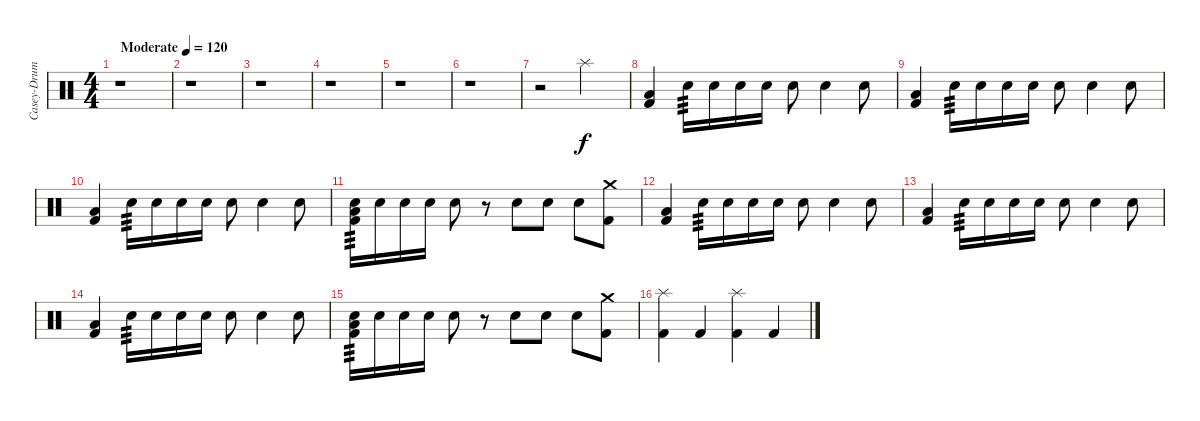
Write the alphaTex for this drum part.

\track ("Casey-Drums" "Casey-Drum") {instrument percussion}
\staff {score}
\articulation defaults
\ts (4 4)
\tempo (120 "Moderate")
\clef neutral
\ks c
r.1{dy f} |
r.1 |
r.1 |
r.1 |
r.1 |
r.1 |
r.2 "Splash (hit)".2 |
("Low Floor Tom (hit)" "Kick (hit) 2").4 "Electric Snare (hit)".16{tp 3} "Electric Snare (hit)".16 "Electric Snare (hit)".16 "Electric Snare (hit)".16 "Electric Snare (hit)".8 "Electric Snare (hit)".4 "Electric Snare (hit)".8 |
("Low Floor Tom (hit)" "Kick (hit) 2").4 "Electric Snare (hit)".16{tp 3} "Electric Snare (hit)".16 "Electric Snare (hit)".16 "Electric Snare (hit)".16 "Electric Snare (hit)".8 "Electric Snare (hit)".4 "Electric Snare (hit)".8 |
("Low Floor Tom (hit)" "Kick (hit) 2").4 "Electric Snare (hit)".16{tp 3} "Electric Snare (hit)".16 "Electric Snare (hit)".16 "Electric Snare (hit)".16 "Electric Snare (hit)".8 "Electric Snare (hit)".4 "Electric Snare (hit)".8 |
("Electric Snare (hit)" "Low Floor Tom (hit)" "Kick (hit) 2").16{tp 3} "Electric Snare (hit)".16 "Electric Snare (hit)".16 "Electric Snare (hit)".16 "Electric Snare (hit)".8 r.8 "Electric Snare (hit)".8 "Electric Snare (hit)".8 "Electric Snare (hit)".8 ("Crash medium (hit)" "Kick (hit) 2").8 |
("Low Floor Tom (hit)" "Kick (hit) 2").4 "Electric Snare (hit)".16{tp 3} "Electric Snare (hit)".16 "Electric Snare (hit)".16 "Electric Snare (hit)".16 "Electric Snare (hit)".8 "Electric Snare (hit)".4 "Electric Snare (hit)".8 |
("Low Floor Tom (hit)" "Kick (hit) 2").4 "Electric Snare (hit)".16{tp 3} "Electric Snare (hit)".16 "Electric Snare (hit)".16 "Electric Snare (hit)".16 "Electric Snare (hit)".8 "Electric Snare (hit)".4 "Electric Snare (hit)".8 |
("Low Floor Tom (hit)" "Kick (hit) 2").4 "Electric Snare (hit)".16{tp 3} "Electric Snare (hit)".16 "Electric Snare (hit)".16 "Electric Snare (hit)".16 "Electric Snare (hit)".8 "Electric Snare (hit)".4 "Electric Snare (hit)".8 |
("Electric Snare (hit)" "Low Floor Tom (hit)" "Kick (hit) 2").16{tp 3} "Electric Snare (hit)".16 "Electric Snare (hit)".16 "Electric Snare (hit)".16 "Electric Snare (hit)".8 r.8 "Electric Snare (hit)".8 "Electric Snare (hit)".8 "Electric Snare (hit)".8 ("Crash medium (hit)" "Kick (hit) 2").8 |
("Splash (hit)" "Kick (hit) 2").4 "Kick (hit) 2".4 ("Splash (hit)" "Kick (hit) 2").4 "Kick (hit) 2".4
